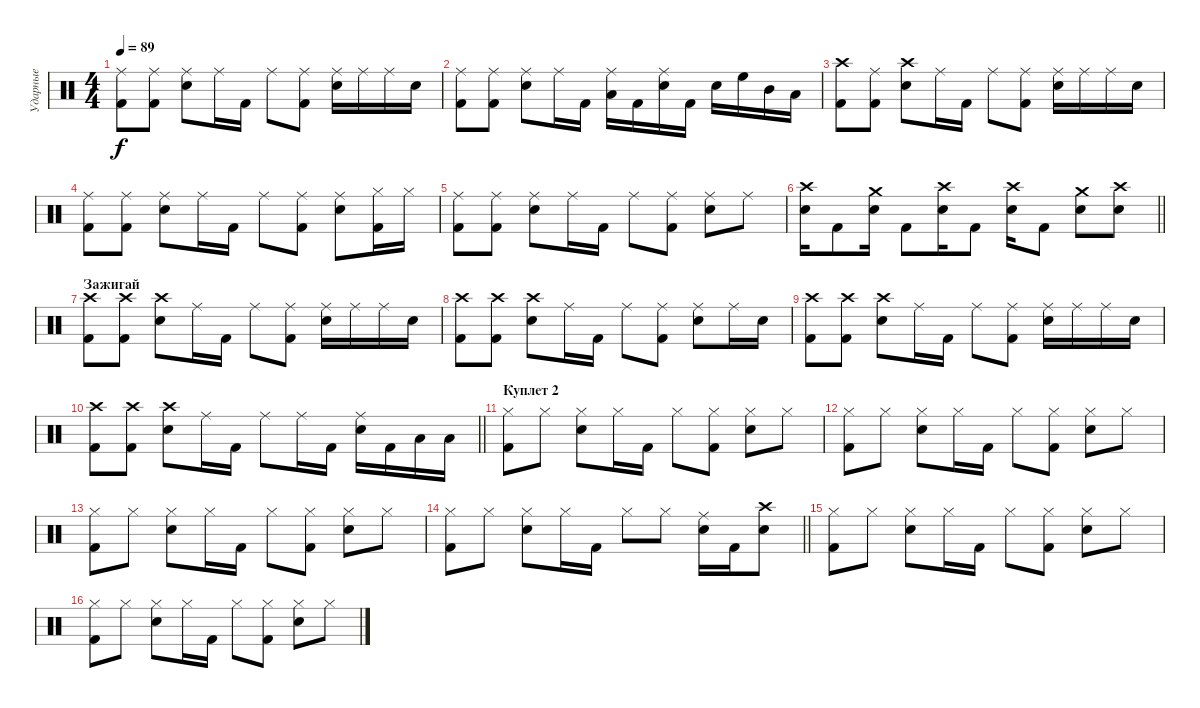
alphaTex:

\track ("Ударные" "Ударные") {instrument percussion}
\staff {score}
\articulation defaults
\ts (4 4)
\tempo 89
\clef neutral
\ks c
("Ride (middle)" "Kick (hit) 2").8{dy f} ("Ride (middle)" "Kick (hit) 2").8 ("Ride (middle)" "Snare (hit) 2").8 "Ride (middle)".16 "Kick (hit) 2".16 "Ride (middle)".8 ("Ride (middle)" "Kick (hit) 2").8 ("Ride (middle)" "Snare (hit) 2").16 "Ride (middle)".16 "Ride (middle)".16 "Snare (hit) 2".16 |
("Ride (middle)" "Kick (hit) 2").8 ("Ride (middle)" "Kick (hit) 2").8 ("Ride (middle)" "Snare (hit) 2").8 "Ride (middle)".16 "Kick (hit) 2".16 ("Ride (middle)" "Low Tom (hit)").16 "Kick (hit) 2".16 ("Ride (middle)" "Snare (hit) 2").16 "Kick (hit) 2".16 "Snare (hit) 2".16 "High Floor Tom (hit)".16 "Mid Tom (hit)".16 "Low Tom (hit)".16 |
("Crash high (hit)" "Kick (hit) 2").8 ("Ride (middle)" "Kick (hit) 2").8 ("Crash high (hit)" "Snare (hit) 2").8 "Ride (middle)".16 "Kick (hit) 2".16 "Ride (middle)".8 ("Ride (middle)" "Kick (hit) 2").8 ("Ride (middle)" "Snare (hit) 2").16 "Ride (middle)".16 "Ride (middle)".16 "Snare (hit) 2".16 |
("Ride (middle)" "Kick (hit) 2").8 ("Ride (middle)" "Kick (hit) 2").8 ("Ride (middle)" "Snare (hit) 2").8 "Ride (middle)".16 "Kick (hit) 2".16 "Ride (middle)".8 ("Ride (middle)" "Kick (hit) 2").8 ("Ride (middle)" "Snare (hit) 2").8 ("Hi-Hat (closed)" "Kick (hit) 2").16 "Hi-Hat (closed)".16 |
("Ride (middle)" "Kick (hit) 2").8 ("Ride (middle)" "Kick (hit) 2").8 ("Ride (middle)" "Snare (hit) 2").8 "Ride (middle)".16 "Kick (hit) 2".16 "Ride (middle)".8 ("Ride (middle)" "Kick (hit) 2").8 ("Ride (middle)" "Snare (hit) 2").8 "Ride (middle)".8 |
\barLineRight lightlight
("Crash high (hit)" "Snare (hit) 2").16 "Kick (hit) 2".8 ("Crash medium (hit)" "Snare (hit) 2").16 "Kick (hit) 2".8 ("Crash high (hit)" "Snare (hit) 2").16 "Kick (hit) 2".8 ("Crash high (hit)" "Snare (hit) 2").16 "Kick (hit) 2".8 ("Crash medium (hit)" "Snare (hit) 2").8 ("Crash high (hit)" "Snare (hit) 2").8 |
\section ("" "Зажигай")
("Crash high (hit)" "Kick (hit) 2").8 ("Crash high (hit)" "Kick (hit) 2").8 ("Crash high (hit)" "Snare (hit) 2").8 "Ride (middle)".16 "Kick (hit) 2".16 "Ride (middle)".8 ("Ride (middle)" "Kick (hit) 2").8 ("Ride (middle)" "Snare (hit) 2").16 "Ride (middle)".16 "Ride (middle)".16 "Snare (hit) 2".16 |
("Crash high (hit)" "Kick (hit) 2").8 ("Crash high (hit)" "Kick (hit) 2").8 ("Crash high (hit)" "Snare (hit) 2").8 "Ride (middle)".16 "Kick (hit) 2".16 "Ride (middle)".8 ("Ride (middle)" "Kick (hit) 2").8 ("Ride (middle)" "Snare (hit) 2").8 "Ride (middle)".16 "Snare (hit) 2".16 |
("Crash high (hit)" "Kick (hit) 2").8 ("Crash high (hit)" "Kick (hit) 2").8 ("Crash high (hit)" "Snare (hit) 2").8 "Ride (middle)".16 "Kick (hit) 2".16 "Ride (middle)".8 ("Ride (middle)" "Kick (hit) 2").8 ("Ride (middle)" "Snare (hit) 2").16 "Ride (middle)".16 "Ride (middle)".16 "Snare (hit) 2".16 |
\barLineRight lightlight
("Crash high (hit)" "Kick (hit) 2").8 ("Crash high (hit)" "Kick (hit) 2").8 ("Crash high (hit)" "Snare (hit) 2").8 "Ride (middle)".16 "Kick (hit) 2".16 "Ride (middle)".8 "Ride (middle)".16 "Kick (hit) 2".16 ("Ride (middle)" "Snare (hit) 2").16 "Kick (hit) 2".16 "Low Floor Tom (hit)".16 "Low Tom (hit)".16 |
\section ("" "Куплет 2")
("Hi-Hat (closed)" "Kick (hit) 2").8 "Hi-Hat (closed)".8 ("Hi-Hat (closed)" "Snare (hit) 2").8 "Hi-Hat (closed)".16 "Kick (hit) 2".16 "Hi-Hat (closed)".8 ("Hi-Hat (closed)" "Kick (hit) 2").8 ("Hi-Hat (closed)" "Snare (hit) 2").8 "Hi-Hat (closed)".8 |
("Hi-Hat (closed)" "Kick (hit) 2").8 "Hi-Hat (closed)".8 ("Hi-Hat (closed)" "Snare (hit) 2").8 "Hi-Hat (closed)".16 "Kick (hit) 2".16 "Hi-Hat (closed)".8 ("Hi-Hat (closed)" "Kick (hit) 2").8 ("Hi-Hat (closed)" "Snare (hit) 2").8 "Hi-Hat (closed)".8 |
("Hi-Hat (closed)" "Kick (hit) 2").8 "Hi-Hat (closed)".8 ("Hi-Hat (closed)" "Snare (hit) 2").8 "Hi-Hat (closed)".16 "Kick (hit) 2".16 "Hi-Hat (closed)".8 ("Hi-Hat (closed)" "Kick (hit) 2").8 ("Hi-Hat (closed)" "Snare (hit) 2").8 "Hi-Hat (closed)".8 |
\barLineRight lightlight
("Hi-Hat (closed)" "Kick (hit) 2").8 "Hi-Hat (closed)".8 ("Hi-Hat (closed)" "Snare (hit) 2").8 "Hi-Hat (closed)".16 "Kick (hit) 2".16 "Hi-Hat (closed)".8 "Hi-Hat (closed)".8 ("Ride (middle)" "Snare (hit) 2").16 "Kick (hit) 2".16 ("Crash high (hit)" "Snare (hit) 2").8 |
("Hi-Hat (closed)" "Kick (hit) 2").8 "Hi-Hat (closed)".8 ("Hi-Hat (closed)" "Snare (hit) 2").8 "Hi-Hat (closed)".16 "Kick (hit) 2".16 "Hi-Hat (closed)".8 ("Hi-Hat (closed)" "Kick (hit) 2").8 ("Hi-Hat (closed)" "Snare (hit) 2").8 "Hi-Hat (closed)".8 |
("Hi-Hat (closed)" "Kick (hit) 2").8 "Hi-Hat (closed)".8 ("Hi-Hat (closed)" "Snare (hit) 2").8 "Hi-Hat (closed)".16 "Kick (hit) 2".16 "Hi-Hat (closed)".8 ("Hi-Hat (closed)" "Kick (hit) 2").8 ("Hi-Hat (closed)" "Snare (hit) 2").8 "Hi-Hat (closed)".8
